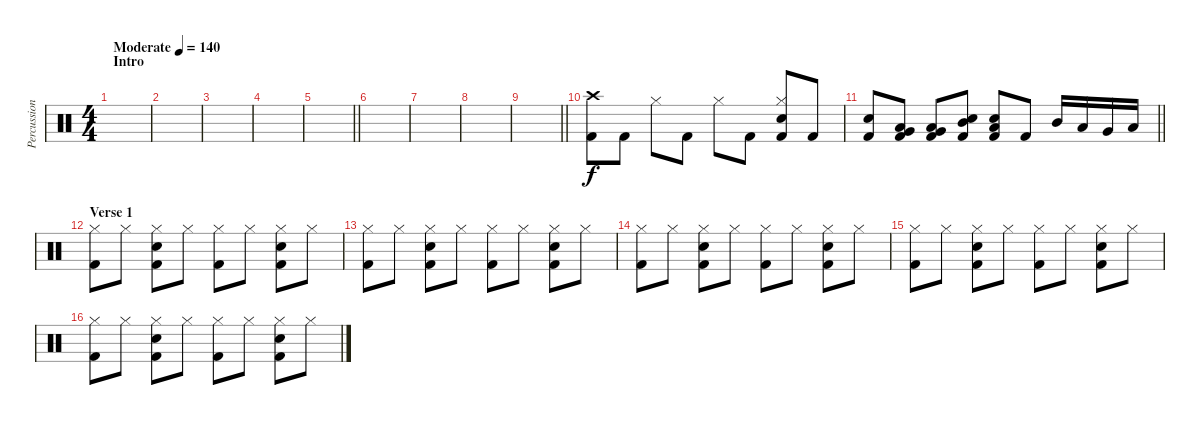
\track ("Percussions" "Percussion") {instrument percussion}
\staff {score}
\articulation defaults
\ts (4 4)
\section ("" "Intro")
\tempo (140 "Moderate")
\clef neutral
\ks c
|
|
|
|
\barLineRight lightlight
|
|
|
|
\barLineRight lightlight
|
("Crash high (hit)" "Kick (hit) 2").8 "Kick (hit) 2".8 "Hi-Hat (closed)".8 "Kick (hit) 2".8 "Hi-Hat (closed)".8 "Kick (hit) 2".8 ("Hi-Hat (closed)" "Electric Snare (hit)" "Kick (hit) 2").8 "Kick (hit) 2".8 |
\barLineRight lightlight
("Electric Snare (hit)" "Kick (hit) 2").8 ("Low Floor Tom (hit)" "Very Low Tom (hit)" "Kick (hit) 2").8 ("Low Floor Tom (hit)" "Very Low Tom (hit)" "Kick (hit) 2").8 ("Electric Snare (hit)" "Mid Tom (hit)" "Kick (hit) 2").8 ("Electric Snare (hit)" "Low Tom (hit)" "Kick (hit) 2").8 "Kick (hit) 2".8 "Mid Tom (hit)".16 "Low Tom (hit)".16 "Very Low Tom (hit)".16 "Low Floor Tom (hit)".16 |
\section ("" "Verse 1")
("Hi-Hat (closed)" "Kick (hit) 2").8 "Hi-Hat (closed)".8 ("Hi-Hat (closed)" "Snare (hit) 2" "Kick (hit) 2").8 "Hi-Hat (closed)".8 ("Hi-Hat (closed)" "Kick (hit) 2").8 "Hi-Hat (closed)".8 ("Hi-Hat (closed)" "Snare (hit) 2" "Kick (hit) 2").8 "Hi-Hat (closed)".8 |
("Hi-Hat (closed)" "Kick (hit) 2").8 "Hi-Hat (closed)".8 ("Hi-Hat (closed)" "Snare (hit) 2" "Kick (hit) 2").8 "Hi-Hat (closed)".8 ("Hi-Hat (closed)" "Kick (hit) 2").8 "Hi-Hat (closed)".8 ("Hi-Hat (closed)" "Snare (hit) 2" "Kick (hit) 2").8 "Hi-Hat (closed)".8 |
("Hi-Hat (closed)" "Kick (hit) 2").8 "Hi-Hat (closed)".8 ("Hi-Hat (closed)" "Snare (hit) 2" "Kick (hit) 2").8 "Hi-Hat (closed)".8 ("Hi-Hat (closed)" "Kick (hit) 2").8 "Hi-Hat (closed)".8 ("Hi-Hat (closed)" "Snare (hit) 2" "Kick (hit) 2").8 "Hi-Hat (closed)".8 |
("Hi-Hat (closed)" "Kick (hit) 2").8 "Hi-Hat (closed)".8 ("Hi-Hat (closed)" "Snare (hit) 2" "Kick (hit) 2").8 "Hi-Hat (closed)".8 ("Hi-Hat (closed)" "Kick (hit) 2").8 "Hi-Hat (closed)".8 ("Hi-Hat (closed)" "Snare (hit) 2" "Kick (hit) 2").8 "Hi-Hat (closed)".8 |
("Hi-Hat (closed)" "Kick (hit) 2").8 "Hi-Hat (closed)".8 ("Hi-Hat (closed)" "Snare (hit) 2" "Kick (hit) 2").8 "Hi-Hat (closed)".8 ("Hi-Hat (closed)" "Kick (hit) 2").8 "Hi-Hat (closed)".8 ("Hi-Hat (closed)" "Snare (hit) 2" "Kick (hit) 2").8 "Hi-Hat (closed)".8
